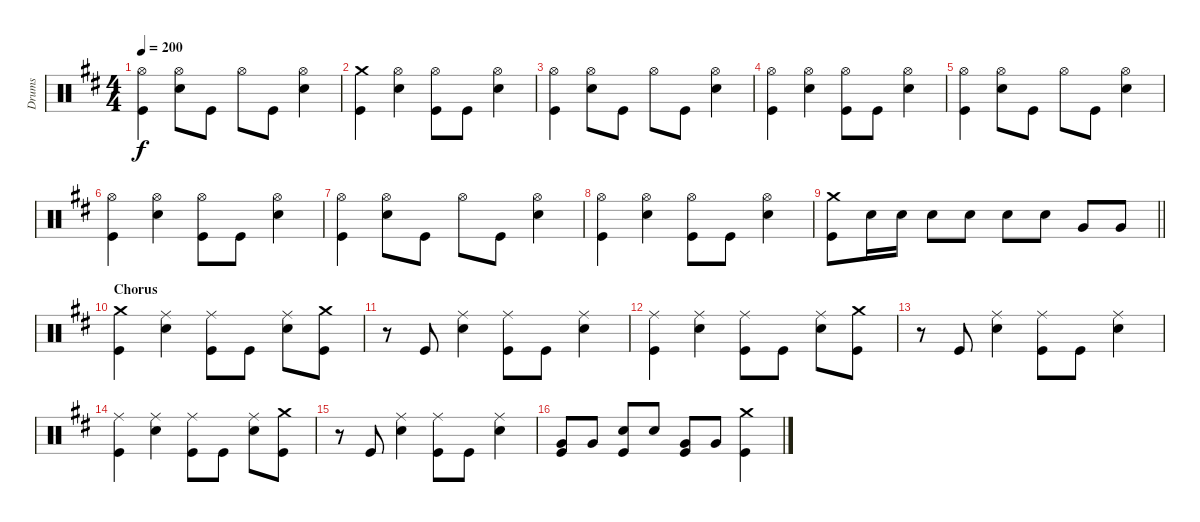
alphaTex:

\track ("Drums" "Drums") {instrument percussion}
\staff {score}
\articulation defaults
\ts (4 4)
\tempo 200
\clef neutral
\ks d
("Kick (hit)" "Hi-Hat (open)").4{dy f} ("Snare (hit) 2" "Hi-Hat (open)").8 "Kick (hit)".8 "Hi-Hat (open)".8 "Kick (hit)".8 ("Snare (hit) 2" "Hi-Hat (open)").4 |
("Kick (hit)" "Crash medium (hit)").4 ("Snare (hit) 2" "Hi-Hat (open)").4 ("Kick (hit)" "Hi-Hat (open)").8 "Kick (hit)".8 ("Snare (hit) 2" "Hi-Hat (open)").4 |
("Kick (hit)" "Hi-Hat (open)").4 ("Snare (hit) 2" "Hi-Hat (open)").8 "Kick (hit)".8 "Hi-Hat (open)".8 "Kick (hit)".8 ("Snare (hit) 2" "Hi-Hat (open)").4 |
("Kick (hit)" "Hi-Hat (open)").4 ("Snare (hit) 2" "Hi-Hat (open)").4 ("Kick (hit)" "Hi-Hat (open)").8 "Kick (hit)".8 ("Snare (hit) 2" "Hi-Hat (open)").4 |
("Kick (hit)" "Hi-Hat (open)").4 ("Snare (hit) 2" "Hi-Hat (open)").8 "Kick (hit)".8 "Hi-Hat (open)".8 "Kick (hit)".8 ("Snare (hit) 2" "Hi-Hat (open)").4 |
("Kick (hit)" "Hi-Hat (open)").4 ("Snare (hit) 2" "Hi-Hat (open)").4 ("Kick (hit)" "Hi-Hat (open)").8 "Kick (hit)".8 ("Snare (hit) 2" "Hi-Hat (open)").4 |
("Kick (hit)" "Hi-Hat (open)").4 ("Snare (hit) 2" "Hi-Hat (open)").8 "Kick (hit)".8 "Hi-Hat (open)".8 "Kick (hit)".8 ("Snare (hit) 2" "Hi-Hat (open)").4 |
("Kick (hit)" "Hi-Hat (open)").4 ("Snare (hit) 2" "Hi-Hat (open)").4 ("Kick (hit)" "Hi-Hat (open)").8 "Kick (hit)".8 ("Snare (hit) 2" "Hi-Hat (open)").4 |
\barLineRight lightlight
("Kick (hit)" "Crash medium (hit)").8 "Snare (hit) 2".16 "Snare (hit) 2".16 "Snare (hit) 2".8 "Snare (hit) 2".8 "Snare (hit) 2".8 "Snare (hit) 2".8 "Very Low Tom (hit)".8 "Very Low Tom (hit)".8 |
\section ("" "Chorus")
("Kick (hit)" "Crash medium (hit)").4 ("Snare (hit) 2" "Ride (middle)").4 ("Kick (hit)" "Ride (middle)").8 "Kick (hit)".8 ("Snare (hit) 2" "Ride (middle)").8 ("Kick (hit)" "Crash medium (hit)").8 |
r.8 "Kick (hit)".8 ("Snare (hit) 2" "Ride (middle)").4 ("Kick (hit)" "Ride (middle)").8 "Kick (hit)".8 ("Snare (hit) 2" "Ride (middle)").4 |
("Kick (hit)" "Ride (middle)").4 ("Snare (hit) 2" "Ride (middle)").4 ("Kick (hit)" "Ride (middle)").8 "Kick (hit)".8 ("Snare (hit) 2" "Ride (middle)").8 ("Kick (hit)" "Crash medium (hit)").8 |
r.8 "Kick (hit)".8 ("Snare (hit) 2" "Ride (middle)").4 ("Kick (hit)" "Ride (middle)").8 "Kick (hit)".8 ("Snare (hit) 2" "Ride (middle)").4 |
("Kick (hit)" "Ride (middle)").4 ("Snare (hit) 2" "Ride (middle)").4 ("Kick (hit)" "Ride (middle)").8 "Kick (hit)".8 ("Snare (hit) 2" "Ride (middle)").8 ("Kick (hit)" "Crash medium (hit)").8 |
r.8 "Kick (hit)".8 ("Snare (hit) 2" "Ride (middle)").4 ("Kick (hit)" "Ride (middle)").8 "Kick (hit)".8 ("Snare (hit) 2" "Ride (middle)").4 |
("Kick (hit)" "Very Low Tom (hit)").8 "Very Low Tom (hit)".8 ("Kick (hit)" "Snare (hit) 2").8 "Snare (hit) 2".8 ("Kick (hit)" "Very Low Tom (hit)").8 "Very Low Tom (hit)".8 ("Kick (hit)" "Crash medium (hit)").4
